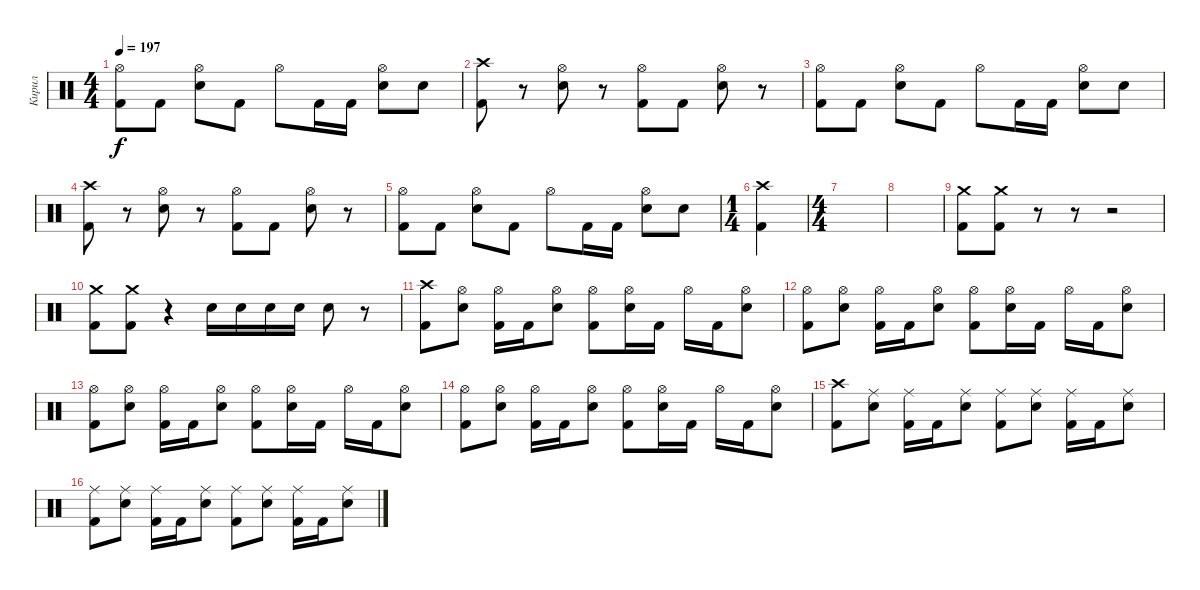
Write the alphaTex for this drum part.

\track ("Кирил" "Кирил") {instrument percussion}
\staff {score}
\articulation defaults
\ts (4 4)
\tempo 197
\clef neutral
\ks c
("Kick (hit) 2" "Hi-Hat (open)").8{dy f} "Kick (hit) 2".8 ("Electric Snare (hit)" "Hi-Hat (open)").8 "Kick (hit) 2".8 "Hi-Hat (open)".8 "Kick (hit) 2".16 "Kick (hit) 2".16 ("Electric Snare (hit)" "Hi-Hat (open)").8 "Electric Snare (hit)".8 |
("Kick (hit) 2" "Crash high (hit)").8 r.8 ("Electric Snare (hit)" "Hi-Hat (open)").8 r.8 ("Kick (hit) 2" "Hi-Hat (open)").8 "Kick (hit) 2".8 ("Electric Snare (hit)" "Hi-Hat (open)").8 r.8 |
("Kick (hit) 2" "Hi-Hat (open)").8 "Kick (hit) 2".8 ("Electric Snare (hit)" "Hi-Hat (open)").8 "Kick (hit) 2".8 "Hi-Hat (open)".8 "Kick (hit) 2".16 "Kick (hit) 2".16 ("Electric Snare (hit)" "Hi-Hat (open)").8 "Electric Snare (hit)".8 |
("Kick (hit) 2" "Crash high (hit)").8 r.8 ("Electric Snare (hit)" "Hi-Hat (open)").8 r.8 ("Kick (hit) 2" "Hi-Hat (open)").8 "Kick (hit) 2".8 ("Electric Snare (hit)" "Hi-Hat (open)").8 r.8 |
("Kick (hit) 2" "Hi-Hat (open)").8 "Kick (hit) 2".8 ("Electric Snare (hit)" "Hi-Hat (open)").8 "Kick (hit) 2".8 "Hi-Hat (open)".8 "Kick (hit) 2".16 "Kick (hit) 2".16 ("Electric Snare (hit)" "Hi-Hat (open)").8 "Electric Snare (hit)".8 |
\ts (1 4)
("Kick (hit) 2" "Crash high (hit)").4 |
\ts (4 4)
|
|
("Crash medium (hit)" "Kick (hit) 2").8 ("Crash medium (hit)" "Kick (hit) 2").8 r.8 r.8 r.2 |
("Crash medium (hit)" "Kick (hit) 2").8 ("Crash medium (hit)" "Kick (hit) 2").8 r.4 "Electric Snare (hit)".16 "Electric Snare (hit)".16 "Electric Snare (hit)".16 "Electric Snare (hit)".16 "Electric Snare (hit)".8 r.8 |
("Crash high (hit)" "Kick (hit) 2").8 ("Hi-Hat (open)" "Electric Snare (hit)").8 ("Hi-Hat (open)" "Kick (hit) 2").16 "Kick (hit) 2".16 ("Hi-Hat (open)" "Electric Snare (hit)").8 ("Hi-Hat (open)" "Kick (hit) 2").8 ("Hi-Hat (open)" "Electric Snare (hit)").16 "Kick (hit) 2".16 "Hi-Hat (open)".16 "Kick (hit) 2".16 ("Hi-Hat (open)" "Electric Snare (hit)").8 |
("Hi-Hat (open)" "Kick (hit) 2").8 ("Hi-Hat (open)" "Electric Snare (hit)").8 ("Hi-Hat (open)" "Kick (hit) 2").16 "Kick (hit) 2".16 ("Hi-Hat (open)" "Electric Snare (hit)").8 ("Hi-Hat (open)" "Kick (hit) 2").8 ("Hi-Hat (open)" "Electric Snare (hit)").16 "Kick (hit) 2".16 "Hi-Hat (open)".16 "Kick (hit) 2".16 ("Hi-Hat (open)" "Electric Snare (hit)").8 |
("Hi-Hat (open)" "Kick (hit) 2").8 ("Hi-Hat (open)" "Electric Snare (hit)").8 ("Hi-Hat (open)" "Kick (hit) 2").16 "Kick (hit) 2".16 ("Hi-Hat (open)" "Electric Snare (hit)").8 ("Hi-Hat (open)" "Kick (hit) 2").8 ("Hi-Hat (open)" "Electric Snare (hit)").16 "Kick (hit) 2".16 "Hi-Hat (open)".16 "Kick (hit) 2".16 ("Hi-Hat (open)" "Electric Snare (hit)").8 |
("Hi-Hat (open)" "Kick (hit) 2").8 ("Hi-Hat (open)" "Electric Snare (hit)").8 ("Hi-Hat (open)" "Kick (hit) 2").16 "Kick (hit) 2".16 ("Hi-Hat (open)" "Electric Snare (hit)").8 ("Hi-Hat (open)" "Kick (hit) 2").8 ("Hi-Hat (open)" "Electric Snare (hit)").16 "Kick (hit) 2".16 "Hi-Hat (open)".16 "Kick (hit) 2".16 ("Hi-Hat (open)" "Electric Snare (hit)").8 |
("Crash high (hit)" "Kick (hit) 2").8 ("Ride (middle)" "Electric Snare (hit)").8 ("Ride (middle)" "Kick (hit) 2").16 "Kick (hit) 2".16 ("Ride (middle)" "Electric Snare (hit)").8 ("Ride (middle)" "Kick (hit) 2").8 ("Ride (middle)" "Electric Snare (hit)").8 ("Ride (middle)" "Kick (hit) 2").16 "Kick (hit) 2".16 ("Ride (middle)" "Electric Snare (hit)").8 |
("Ride (middle)" "Kick (hit) 2").8 ("Ride (middle)" "Electric Snare (hit)").8 ("Ride (middle)" "Kick (hit) 2").16 "Kick (hit) 2".16 ("Ride (middle)" "Electric Snare (hit)").8 ("Ride (middle)" "Kick (hit) 2").8 ("Ride (middle)" "Electric Snare (hit)").8 ("Ride (middle)" "Kick (hit) 2").16 "Kick (hit) 2".16 ("Ride (middle)" "Electric Snare (hit)").8
